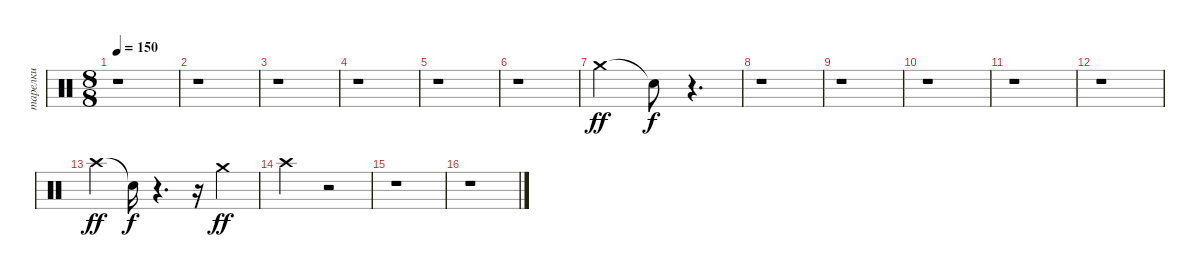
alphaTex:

\track ("тарелки" "тарелки") {instrument percussion}
\staff {score}
\articulation defaults
\ts (8 8)
\tempo 150
\clef neutral
\ks c
r.1{dy f} |
r.1 |
r.1 |
r.1 |
r.1 |
r.1 |
"Crash medium (hit)".2{dy ff} "Snare (hit)"{t}.8{dy f} r.4{d} |
r.1 |
r.1 |
r.1 |
r.1 |
r.1 |
"Crash high (hit)".4{dy ff} "Snare (hit)"{t}.16{dy f} r.4{d} r.16 "Crash medium (hit)".4{dy ff} |
"Crash high (hit)".2 r.2 |
r.1 |
r.1
